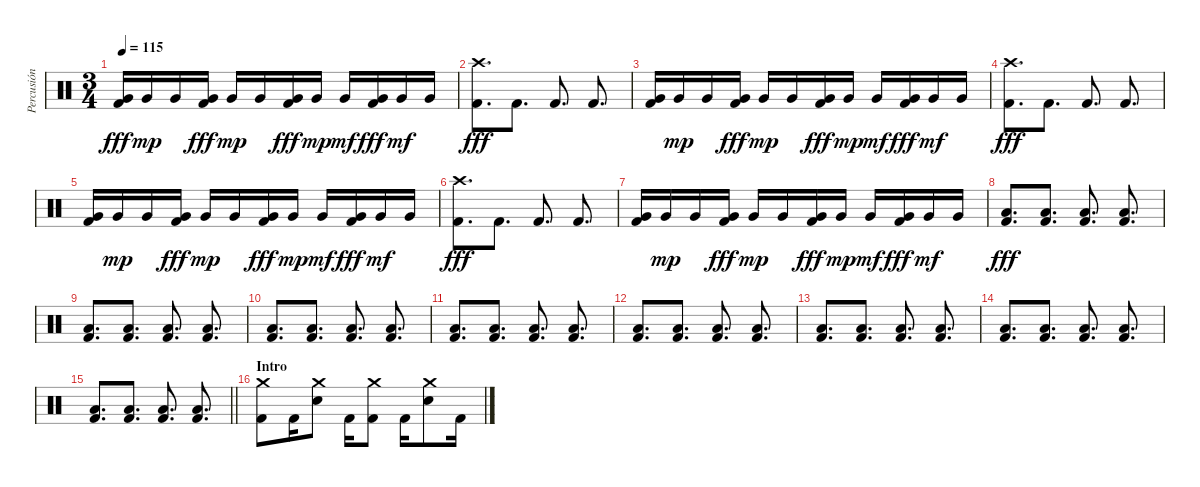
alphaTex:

\track ("Percusión" "Percusión") {instrument percussion}
\staff {score}
\articulation defaults
\ts (3 4)
\tempo 115
\clef neutral
\ks c
("Very Low Tom (hit)" "Kick (hit) 2").16{dy fff} "Very Low Tom (hit)".16{dy mp} "Very Low Tom (hit)".16 ("Very Low Tom (hit)" "Kick (hit) 2").16{dy fff} "Very Low Tom (hit)".16{dy mp} "Very Low Tom (hit)".16 ("Very Low Tom (hit)" "Kick (hit) 2").16{dy fff} "Very Low Tom (hit)".16{dy mp} "Very Low Tom (hit)".16{dy mf} ("Very Low Tom (hit)" "Kick (hit) 2").16{dy fff} "Very Low Tom (hit)".16{dy mf} "Very Low Tom (hit)".16 |
("Crash high (hit)" "Kick (hit) 2").8{d dy fff} "Kick (hit) 2".8{d} "Kick (hit) 2".8{d} "Kick (hit) 2".8{d} |
("Very Low Tom (hit)" "Kick (hit) 2").16 "Very Low Tom (hit)".16{dy mp} "Very Low Tom (hit)".16 ("Very Low Tom (hit)" "Kick (hit) 2").16{dy fff} "Very Low Tom (hit)".16{dy mp} "Very Low Tom (hit)".16 ("Very Low Tom (hit)" "Kick (hit) 2").16{dy fff} "Very Low Tom (hit)".16{dy mp} "Very Low Tom (hit)".16{dy mf} ("Very Low Tom (hit)" "Kick (hit) 2").16{dy fff} "Very Low Tom (hit)".16{dy mf} "Very Low Tom (hit)".16 |
("Crash high (hit)" "Kick (hit) 2").8{d dy fff} "Kick (hit) 2".8{d} "Kick (hit) 2".8{d} "Kick (hit) 2".8{d} |
("Very Low Tom (hit)" "Kick (hit) 2").16 "Very Low Tom (hit)".16{dy mp} "Very Low Tom (hit)".16 ("Very Low Tom (hit)" "Kick (hit) 2").16{dy fff} "Very Low Tom (hit)".16{dy mp} "Very Low Tom (hit)".16 ("Very Low Tom (hit)" "Kick (hit) 2").16{dy fff} "Very Low Tom (hit)".16{dy mp} "Very Low Tom (hit)".16{dy mf} ("Very Low Tom (hit)" "Kick (hit) 2").16{dy fff} "Very Low Tom (hit)".16{dy mf} "Very Low Tom (hit)".16 |
("Crash high (hit)" "Kick (hit) 2").8{d dy fff} "Kick (hit) 2".8{d} "Kick (hit) 2".8{d} "Kick (hit) 2".8{d} |
("Very Low Tom (hit)" "Kick (hit) 2").16 "Very Low Tom (hit)".16{dy mp} "Very Low Tom (hit)".16 ("Very Low Tom (hit)" "Kick (hit) 2").16{dy fff} "Very Low Tom (hit)".16{dy mp} "Very Low Tom (hit)".16 ("Very Low Tom (hit)" "Kick (hit) 2").16{dy fff} "Very Low Tom (hit)".16{dy mp} "Very Low Tom (hit)".16{dy mf} ("Very Low Tom (hit)" "Kick (hit) 2").16{dy fff} "Very Low Tom (hit)".16{dy mf} "Very Low Tom (hit)".16 |
("Low Floor Tom (hit)" "Kick (hit) 2").8{d dy fff} ("Low Floor Tom (hit)" "Kick (hit) 2").8{d} ("Low Floor Tom (hit)" "Kick (hit) 2").8{d} ("Low Floor Tom (hit)" "Kick (hit) 2").8{d} |
("Low Floor Tom (hit)" "Kick (hit) 2").8{d} ("Low Floor Tom (hit)" "Kick (hit) 2").8{d} ("Low Floor Tom (hit)" "Kick (hit) 2").8{d} ("Low Floor Tom (hit)" "Kick (hit) 2").8{d} |
("Low Floor Tom (hit)" "Kick (hit) 2").8{d} ("Low Floor Tom (hit)" "Kick (hit) 2").8{d} ("Low Floor Tom (hit)" "Kick (hit) 2").8{d} ("Low Floor Tom (hit)" "Kick (hit) 2").8{d} |
("Low Floor Tom (hit)" "Kick (hit) 2").8{d} ("Low Floor Tom (hit)" "Kick (hit) 2").8{d} ("Low Floor Tom (hit)" "Kick (hit) 2").8{d} ("Low Floor Tom (hit)" "Kick (hit) 2").8{d} |
("Low Floor Tom (hit)" "Kick (hit) 2").8{d} ("Low Floor Tom (hit)" "Kick (hit) 2").8{d} ("Low Floor Tom (hit)" "Kick (hit) 2").8{d} ("Low Floor Tom (hit)" "Kick (hit) 2").8{d} |
("Low Floor Tom (hit)" "Kick (hit) 2").8{d} ("Low Floor Tom (hit)" "Kick (hit) 2").8{d} ("Low Floor Tom (hit)" "Kick (hit) 2").8{d} ("Low Floor Tom (hit)" "Kick (hit) 2").8{d} |
("Low Floor Tom (hit)" "Kick (hit) 2").8{d} ("Low Floor Tom (hit)" "Kick (hit) 2").8{d} ("Low Floor Tom (hit)" "Kick (hit) 2").8{d} ("Low Floor Tom (hit)" "Kick (hit) 2").8{d} |
\barLineRight lightlight
("Low Floor Tom (hit)" "Kick (hit) 2").8{d} ("Low Floor Tom (hit)" "Kick (hit) 2").8{d} ("Low Floor Tom (hit)" "Kick (hit) 2").8{d} ("Low Floor Tom (hit)" "Kick (hit) 2").8{d} |
\section ("" "Intro")
("Crash medium (hit)" "Kick (hit) 2").8 "Kick (hit) 2".16 ("Crash medium (hit)" "Electric Snare (hit)").8 "Kick (hit) 2".16 ("Crash medium (hit)" "Kick (hit) 2").8 "Kick (hit) 2".16 ("Crash medium (hit)" "Electric Snare (hit)").8 "Kick (hit) 2".16
